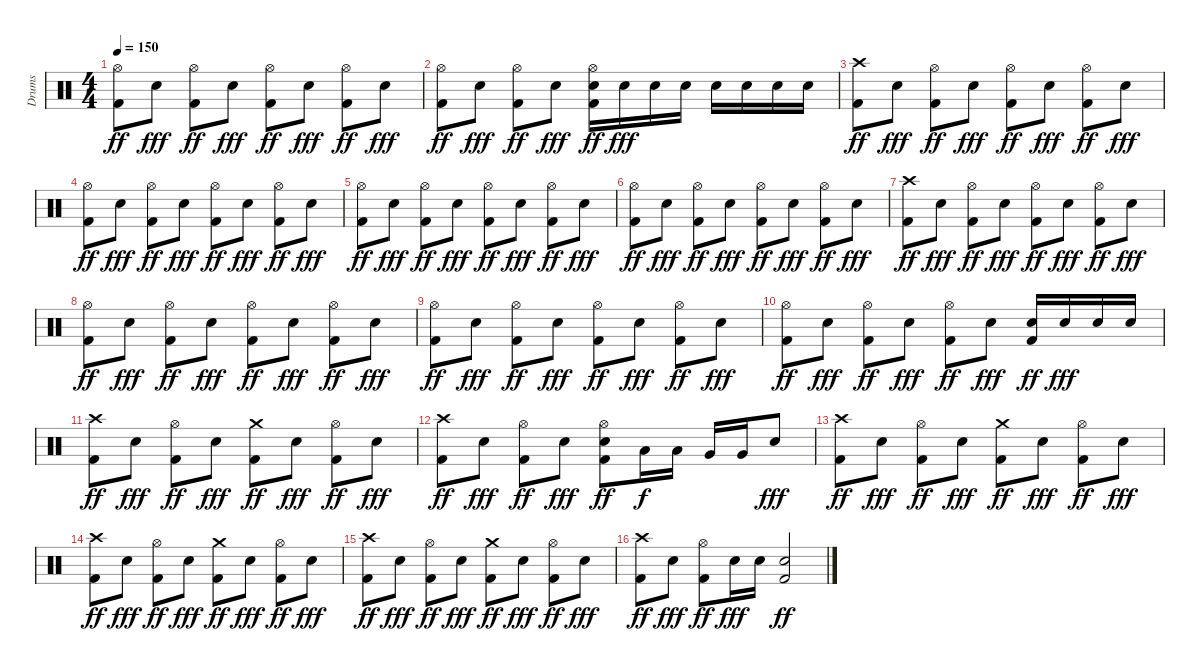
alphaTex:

\track ("Drums" "Drums") {instrument percussion}
\staff {score}
\articulation defaults
\ts (4 4)
\tempo 150
\clef neutral
\ks c
("Hi-Hat (open)" "Kick (hit) 2").8{dy ff} "Snare (hit) 2".8{dy fff} ("Hi-Hat (open)" "Kick (hit) 2").8{dy ff} "Snare (hit) 2".8{dy fff} ("Hi-Hat (open)" "Kick (hit) 2").8{dy ff} "Snare (hit) 2".8{dy fff} ("Hi-Hat (open)" "Kick (hit) 2").8{dy ff} "Snare (hit) 2".8{dy fff} |
("Hi-Hat (open)" "Kick (hit) 2").8{dy ff} "Snare (hit) 2".8{dy fff} ("Hi-Hat (open)" "Kick (hit) 2").8{dy ff} "Snare (hit) 2".8{dy fff} ("Hi-Hat (open)" "Snare (hit) 2" "Kick (hit) 2").16{dy ff} "Snare (hit) 2".16{dy fff} "Snare (hit) 2".16 "Snare (hit) 2".16 "Snare (hit) 2".16 "Snare (hit) 2".16 "Snare (hit) 2".16 "Snare (hit) 2".16 |
("Crash high (hit)" "Kick (hit) 2").8{dy ff} "Snare (hit) 2".8{dy fff} ("Hi-Hat (open)" "Kick (hit) 2").8{dy ff} "Snare (hit) 2".8{dy fff} ("Hi-Hat (open)" "Kick (hit) 2").8{dy ff} "Snare (hit) 2".8{dy fff} ("Hi-Hat (open)" "Kick (hit) 2").8{dy ff} "Snare (hit) 2".8{dy fff} |
("Hi-Hat (open)" "Kick (hit) 2").8{dy ff} "Snare (hit) 2".8{dy fff} ("Hi-Hat (open)" "Kick (hit) 2").8{dy ff} "Snare (hit) 2".8{dy fff} ("Hi-Hat (open)" "Kick (hit) 2").8{dy ff} "Snare (hit) 2".8{dy fff} ("Hi-Hat (open)" "Kick (hit) 2").8{dy ff} "Snare (hit) 2".8{dy fff} |
("Hi-Hat (open)" "Kick (hit) 2").8{dy ff} "Snare (hit) 2".8{dy fff} ("Hi-Hat (open)" "Kick (hit) 2").8{dy ff} "Snare (hit) 2".8{dy fff} ("Hi-Hat (open)" "Kick (hit) 2").8{dy ff} "Snare (hit) 2".8{dy fff} ("Hi-Hat (open)" "Kick (hit) 2").8{dy ff} "Snare (hit) 2".8{dy fff} |
("Hi-Hat (open)" "Kick (hit) 2").8{dy ff} "Snare (hit) 2".8{dy fff} ("Hi-Hat (open)" "Kick (hit) 2").8{dy ff} "Snare (hit) 2".8{dy fff} ("Hi-Hat (open)" "Kick (hit) 2").8{dy ff} "Snare (hit) 2".8{dy fff} ("Hi-Hat (open)" "Kick (hit) 2").8{dy ff} "Snare (hit) 2".8{dy fff} |
("Crash high (hit)" "Kick (hit) 2").8{dy ff} "Snare (hit) 2".8{dy fff} ("Hi-Hat (open)" "Kick (hit) 2").8{dy ff} "Snare (hit) 2".8{dy fff} ("Hi-Hat (open)" "Kick (hit) 2").8{dy ff} "Snare (hit) 2".8{dy fff} ("Hi-Hat (open)" "Kick (hit) 2").8{dy ff} "Snare (hit) 2".8{dy fff} |
("Hi-Hat (open)" "Kick (hit) 2").8{dy ff} "Snare (hit) 2".8{dy fff} ("Hi-Hat (open)" "Kick (hit) 2").8{dy ff} "Snare (hit) 2".8{dy fff} ("Hi-Hat (open)" "Kick (hit) 2").8{dy ff} "Snare (hit) 2".8{dy fff} ("Hi-Hat (open)" "Kick (hit) 2").8{dy ff} "Snare (hit) 2".8{dy fff} |
("Hi-Hat (open)" "Kick (hit) 2").8{dy ff} "Snare (hit) 2".8{dy fff} ("Hi-Hat (open)" "Kick (hit) 2").8{dy ff} "Snare (hit) 2".8{dy fff} ("Hi-Hat (open)" "Kick (hit) 2").8{dy ff} "Snare (hit) 2".8{dy fff} ("Hi-Hat (open)" "Kick (hit) 2").8{dy ff} "Snare (hit) 2".8{dy fff} |
("Hi-Hat (open)" "Kick (hit) 2").8{dy ff} "Snare (hit) 2".8{dy fff} ("Hi-Hat (open)" "Kick (hit) 2").8{dy ff} "Snare (hit) 2".8{dy fff} ("Hi-Hat (open)" "Kick (hit) 2").8{dy ff} "Snare (hit) 2".8{dy fff} ("Snare (hit) 2" "Kick (hit) 2").16{dy ff} "Snare (hit) 2".16{dy fff} "Snare (hit) 2".16 "Snare (hit) 2".16 |
("Crash high (hit)" "Kick (hit) 2").8{dy ff} "Snare (hit) 2".8{dy fff} ("Hi-Hat (open)" "Kick (hit) 2").8{dy ff} "Snare (hit) 2".8{dy fff} ("Crash medium (hit)" "Kick (hit) 2").8{dy ff} "Snare (hit) 2".8{dy fff} ("Hi-Hat (open)" "Kick (hit) 2").8{dy ff} "Snare (hit) 2".8{dy fff} |
("Crash high (hit)" "Kick (hit) 2").8{dy ff} "Snare (hit) 2".8{dy fff} ("Hi-Hat (open)" "Kick (hit) 2").8{dy ff} "Snare (hit) 2".8{dy fff} ("Hi-Hat (open)" "Snare (hit) 2" "Kick (hit) 2").8{dy ff} "Low Tom (hit)".16{dy f} "Low Tom (hit)".16 "Very Low Tom (hit)".16 "Very Low Tom (hit)".16 "Snare (hit) 2".8{dy fff} |
("Crash high (hit)" "Kick (hit) 2").8{dy ff} "Snare (hit) 2".8{dy fff} ("Hi-Hat (open)" "Kick (hit) 2").8{dy ff} "Snare (hit) 2".8{dy fff} ("Crash medium (hit)" "Kick (hit) 2").8{dy ff} "Snare (hit) 2".8{dy fff} ("Hi-Hat (open)" "Kick (hit) 2").8{dy ff} "Snare (hit) 2".8{dy fff} |
("Crash high (hit)" "Kick (hit) 2").8{dy ff} "Snare (hit) 2".8{dy fff} ("Hi-Hat (open)" "Kick (hit) 2").8{dy ff} "Snare (hit) 2".8{dy fff} ("Crash medium (hit)" "Kick (hit) 2").8{dy ff} "Snare (hit) 2".8{dy fff} ("Hi-Hat (open)" "Kick (hit) 2").8{dy ff} "Snare (hit) 2".8{dy fff} |
("Crash high (hit)" "Kick (hit) 2").8{dy ff} "Snare (hit) 2".8{dy fff} ("Hi-Hat (open)" "Kick (hit) 2").8{dy ff} "Snare (hit) 2".8{dy fff} ("Crash medium (hit)" "Kick (hit) 2").8{dy ff} "Snare (hit) 2".8{dy fff} ("Hi-Hat (open)" "Kick (hit) 2").8{dy ff} "Snare (hit) 2".8{dy fff} |
("Crash high (hit)" "Kick (hit) 2").8{dy ff} "Snare (hit) 2".8{dy fff} ("Hi-Hat (open)" "Kick (hit) 2").8{dy ff} "Snare (hit) 2".16{dy fff} "Snare (hit) 2".16 ("Snare (hit) 2" "Kick (hit) 2").2{dy ff}
